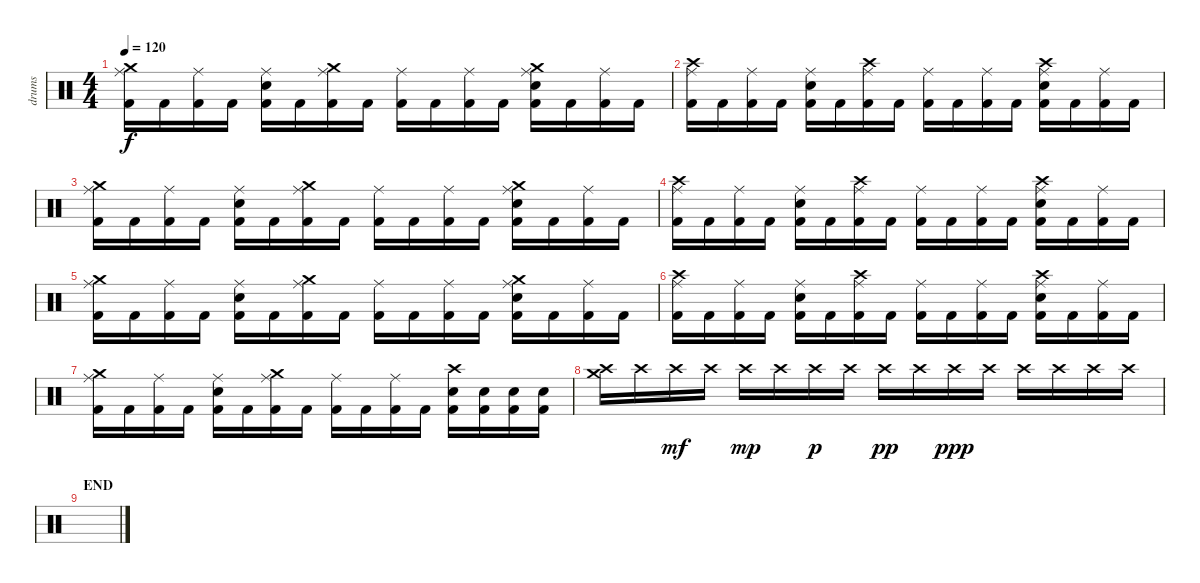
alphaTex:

\track ("drums" "drums") {instrument percussion}
\staff {score}
\articulation defaults
\ts (4 4)
\tempo 120
\clef neutral
\ks c
("Crash medium (hit)" "Ride (middle)" "Kick (hit) 2").16{dy f} "Kick (hit) 2".16 ("Ride (middle)" "Kick (hit) 2").16 "Kick (hit) 2".16 ("Ride (middle)" "Electric Snare (hit)" "Kick (hit) 2").16 "Kick (hit) 2".16 ("Crash medium (hit)" "Ride (middle)" "Kick (hit) 2").16 "Kick (hit) 2".16 ("Ride (middle)" "Kick (hit) 2").16 "Kick (hit) 2".16 ("Ride (middle)" "Kick (hit) 2").16 "Kick (hit) 2".16 ("Crash medium (hit)" "Ride (middle)" "Electric Snare (hit)" "Kick (hit) 2").16 "Kick (hit) 2".16 ("Ride (middle)" "Kick (hit) 2").16 "Kick (hit) 2".16 |
("Crash high (hit)" "Ride (middle)" "Kick (hit) 2").16 "Kick (hit) 2".16 ("Ride (middle)" "Kick (hit) 2").16 "Kick (hit) 2".16 ("Ride (middle)" "Electric Snare (hit)" "Kick (hit) 2").16 "Kick (hit) 2".16 ("Crash high (hit)" "Ride (middle)" "Kick (hit) 2").16 "Kick (hit) 2".16 ("Ride (middle)" "Kick (hit) 2").16 "Kick (hit) 2".16 ("Ride (middle)" "Kick (hit) 2").16 "Kick (hit) 2".16 ("Crash high (hit)" "Ride (middle)" "Electric Snare (hit)" "Kick (hit) 2").16 "Kick (hit) 2".16 ("Ride (middle)" "Kick (hit) 2").16 "Kick (hit) 2".16 |
("Crash medium (hit)" "Ride (middle)" "Kick (hit) 2").16 "Kick (hit) 2".16 ("Ride (middle)" "Kick (hit) 2").16 "Kick (hit) 2".16 ("Ride (middle)" "Electric Snare (hit)" "Kick (hit) 2").16 "Kick (hit) 2".16 ("Crash medium (hit)" "Ride (middle)" "Kick (hit) 2").16 "Kick (hit) 2".16 ("Ride (middle)" "Kick (hit) 2").16 "Kick (hit) 2".16 ("Ride (middle)" "Kick (hit) 2").16 "Kick (hit) 2".16 ("Crash medium (hit)" "Ride (middle)" "Electric Snare (hit)" "Kick (hit) 2").16 "Kick (hit) 2".16 ("Ride (middle)" "Kick (hit) 2").16 "Kick (hit) 2".16 |
("Crash high (hit)" "Ride (middle)" "Kick (hit) 2").16 "Kick (hit) 2".16 ("Ride (middle)" "Kick (hit) 2").16 "Kick (hit) 2".16 ("Ride (middle)" "Electric Snare (hit)" "Kick (hit) 2").16 "Kick (hit) 2".16 ("Crash high (hit)" "Ride (middle)" "Kick (hit) 2").16 "Kick (hit) 2".16 ("Ride (middle)" "Kick (hit) 2").16 "Kick (hit) 2".16 ("Ride (middle)" "Kick (hit) 2").16 "Kick (hit) 2".16 ("Crash high (hit)" "Ride (middle)" "Electric Snare (hit)" "Kick (hit) 2").16 "Kick (hit) 2".16 ("Ride (middle)" "Kick (hit) 2").16 "Kick (hit) 2".16 |
("Crash medium (hit)" "Ride (middle)" "Kick (hit) 2").16 "Kick (hit) 2".16 ("Ride (middle)" "Kick (hit) 2").16 "Kick (hit) 2".16 ("Ride (middle)" "Electric Snare (hit)" "Kick (hit) 2").16 "Kick (hit) 2".16 ("Crash medium (hit)" "Ride (middle)" "Kick (hit) 2").16 "Kick (hit) 2".16 ("Ride (middle)" "Kick (hit) 2").16 "Kick (hit) 2".16 ("Ride (middle)" "Kick (hit) 2").16 "Kick (hit) 2".16 ("Crash medium (hit)" "Ride (middle)" "Electric Snare (hit)" "Kick (hit) 2").16 "Kick (hit) 2".16 ("Ride (middle)" "Kick (hit) 2").16 "Kick (hit) 2".16 |
("Crash high (hit)" "Ride (middle)" "Kick (hit) 2").16 "Kick (hit) 2".16 ("Ride (middle)" "Kick (hit) 2").16 "Kick (hit) 2".16 ("Ride (middle)" "Electric Snare (hit)" "Kick (hit) 2").16 "Kick (hit) 2".16 ("Crash high (hit)" "Ride (middle)" "Kick (hit) 2").16 "Kick (hit) 2".16 ("Ride (middle)" "Kick (hit) 2").16 "Kick (hit) 2".16 ("Ride (middle)" "Kick (hit) 2").16 "Kick (hit) 2".16 ("Crash high (hit)" "Ride (middle)" "Electric Snare (hit)" "Kick (hit) 2").16 "Kick (hit) 2".16 ("Ride (middle)" "Kick (hit) 2").16 "Kick (hit) 2".16 |
("Crash medium (hit)" "Ride (middle)" "Kick (hit) 2").16 "Kick (hit) 2".16 ("Ride (middle)" "Kick (hit) 2").16 "Kick (hit) 2".16 ("Ride (middle)" "Electric Snare (hit)" "Kick (hit) 2").16 "Kick (hit) 2".16 ("Crash medium (hit)" "Ride (middle)" "Kick (hit) 2").16 "Kick (hit) 2".16 ("Ride (middle)" "Kick (hit) 2").16 "Kick (hit) 2".16 ("Ride (middle)" "Kick (hit) 2").16 "Kick (hit) 2".16 ("Crash high (hit)" "Electric Snare (hit)" "Kick (hit) 2").16 ("Electric Snare (hit)" "Kick (hit) 2").16 ("Electric Snare (hit)" "Kick (hit) 2").16 ("Electric Snare (hit)" "Kick (hit) 2").16 |
("Crash medium (hit)" "Crash high (hit)").16 "Crash high (hit)".16 "Crash high (hit)".16{dy mf} "Crash high (hit)".16 "Crash high (hit)".16{dy mp} "Crash high (hit)".16 "Crash high (hit)".16{dy p} "Crash high (hit)".16 "Crash high (hit)".16{dy pp} "Crash high (hit)".16 "Crash high (hit)".16{dy ppp} "Crash high (hit)".16 "Crash high (hit)".16 "Crash high (hit)".16 "Crash high (hit)".16 "Crash high (hit)".16 |
\section ("" "END")
